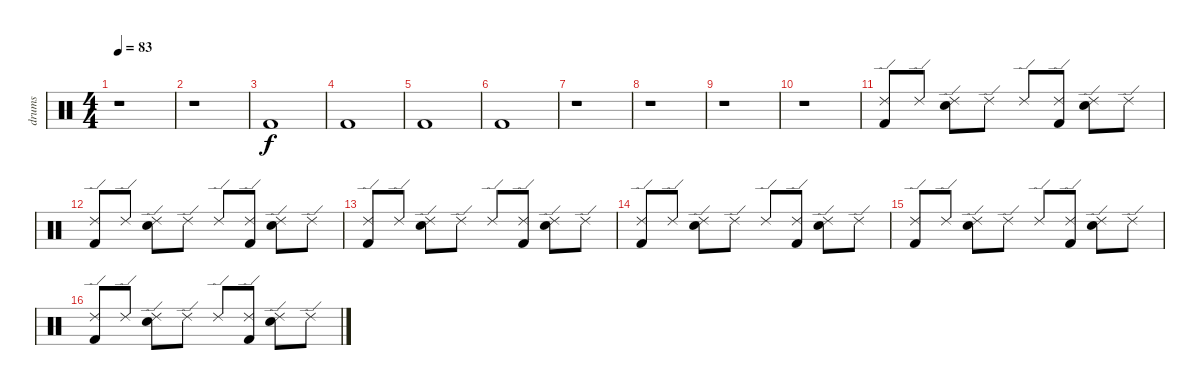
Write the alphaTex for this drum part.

\track ("drums" "drums") {instrument percussion}
\staff {score}
\articulation defaults
\ts (4 4)
\tempo 83
\clef neutral
\ks c
r.1{dy f} |
r.1 |
"Kick (hit) 2".1 |
"Kick (hit) 2".1 |
"Kick (hit) 2".1 |
"Kick (hit) 2".1 |
r.1 |
r.1 |
r.1 |
r.1 |
("Ride (edge) 2" "Kick (hit) 2").8 "Ride (edge) 2".8 ("Ride (edge) 2" "Snare (hit) 2").8 "Ride (edge) 2".8 "Ride (edge) 2".8 ("Ride (edge) 2" "Kick (hit) 2").8 ("Ride (edge) 2" "Snare (hit) 2").8 "Ride (edge) 2".8 |
("Ride (edge) 2" "Kick (hit) 2").8 "Ride (edge) 2".8 ("Ride (edge) 2" "Snare (hit) 2").8 "Ride (edge) 2".8 "Ride (edge) 2".8 ("Ride (edge) 2" "Kick (hit) 2").8 ("Ride (edge) 2" "Snare (hit) 2").8 "Ride (edge) 2".8 |
("Ride (edge) 2" "Kick (hit) 2").8 "Ride (edge) 2".8 ("Ride (edge) 2" "Snare (hit) 2").8 "Ride (edge) 2".8 "Ride (edge) 2".8 ("Ride (edge) 2" "Kick (hit) 2").8 ("Ride (edge) 2" "Snare (hit) 2").8 "Ride (edge) 2".8 |
("Ride (edge) 2" "Kick (hit) 2").8 "Ride (edge) 2".8 ("Ride (edge) 2" "Snare (hit) 2").8 "Ride (edge) 2".8 "Ride (edge) 2".8 ("Ride (edge) 2" "Kick (hit) 2").8 ("Ride (edge) 2" "Snare (hit) 2").8 "Ride (edge) 2".8 |
("Ride (edge) 2" "Kick (hit) 2").8 "Ride (edge) 2".8 ("Ride (edge) 2" "Snare (hit) 2").8 "Ride (edge) 2".8 "Ride (edge) 2".8 ("Ride (edge) 2" "Kick (hit) 2").8 ("Ride (edge) 2" "Snare (hit) 2").8 "Ride (edge) 2".8 |
("Ride (edge) 2" "Kick (hit) 2").8 "Ride (edge) 2".8 ("Ride (edge) 2" "Snare (hit) 2").8 "Ride (edge) 2".8 "Ride (edge) 2".8 ("Ride (edge) 2" "Kick (hit) 2").8 ("Ride (edge) 2" "Snare (hit) 2").8 "Ride (edge) 2".8
